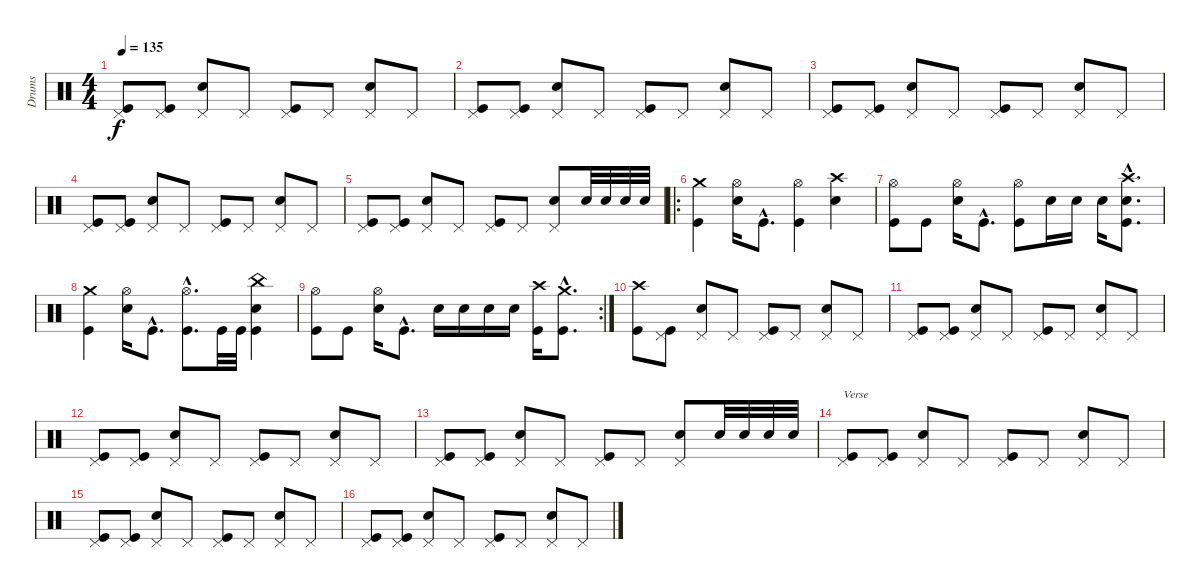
\track ("Drums" "Drums") {instrument percussion}
\staff {score}
\articulation defaults
\ts (4 4)
\tempo 135
\clef neutral
\ks c
("Pedal Hi-Hat (hit)" "Kick (hit)").8{dy f} ("Pedal Hi-Hat (hit)" "Kick (hit)").8 ("Pedal Hi-Hat (hit)" "Snare (hit) 2").8 "Pedal Hi-Hat (hit)".8 ("Pedal Hi-Hat (hit)" "Kick (hit)").8 "Pedal Hi-Hat (hit)".8 ("Pedal Hi-Hat (hit)" "Snare (hit) 2").8 "Pedal Hi-Hat (hit)".8 |
("Pedal Hi-Hat (hit)" "Kick (hit)").8 ("Pedal Hi-Hat (hit)" "Kick (hit)").8 ("Pedal Hi-Hat (hit)" "Snare (hit) 2").8 "Pedal Hi-Hat (hit)".8 ("Pedal Hi-Hat (hit)" "Kick (hit)").8 "Pedal Hi-Hat (hit)".8 ("Pedal Hi-Hat (hit)" "Snare (hit) 2").8 "Pedal Hi-Hat (hit)".8 |
("Pedal Hi-Hat (hit)" "Kick (hit)").8 ("Pedal Hi-Hat (hit)" "Kick (hit)").8 ("Pedal Hi-Hat (hit)" "Snare (hit) 2").8 "Pedal Hi-Hat (hit)".8 ("Pedal Hi-Hat (hit)" "Kick (hit)").8 "Pedal Hi-Hat (hit)".8 ("Pedal Hi-Hat (hit)" "Snare (hit) 2").8 "Pedal Hi-Hat (hit)".8 |
("Pedal Hi-Hat (hit)" "Kick (hit)").8 ("Pedal Hi-Hat (hit)" "Kick (hit)").8 ("Pedal Hi-Hat (hit)" "Snare (hit) 2").8 "Pedal Hi-Hat (hit)".8 ("Pedal Hi-Hat (hit)" "Kick (hit)").8 "Pedal Hi-Hat (hit)".8 ("Pedal Hi-Hat (hit)" "Snare (hit) 2").8 "Pedal Hi-Hat (hit)".8 |
("Pedal Hi-Hat (hit)" "Kick (hit)").8 ("Pedal Hi-Hat (hit)" "Kick (hit)").8 ("Pedal Hi-Hat (hit)" "Snare (hit) 2").8 "Pedal Hi-Hat (hit)".8 ("Pedal Hi-Hat (hit)" "Kick (hit)").8 "Pedal Hi-Hat (hit)".8 ("Pedal Hi-Hat (hit)" "Snare (hit) 2").8 "Snare (hit) 2".32 "Snare (hit) 2".32 "Snare (hit) 2".32 "Snare (hit) 2".32 |
\ro
("Crash medium (hit)" "Kick (hit)").4 ("Hi-Hat (open)" "Snare (hit) 2").16 "Kick (hit)"{hac}.8{d} ("Hi-Hat (open)" "Kick (hit)").4 ("Crash high (hit)" "Snare (hit) 2").4 |
("Hi-Hat (open)" "Kick (hit)").8 "Kick (hit)".8 ("Hi-Hat (open)" "Snare (hit) 2").16 "Kick (hit)"{hac}.8{d} ("Hi-Hat (open)" "Kick (hit)").8 "Snare (hit) 2".16 "Snare (hit) 2".16 "Snare (hit) 2".16 ("Crash high (hit)"{hac} "Snare (hit) 2"{hac} "Kick (hit)"{hac}).8{d} |
("Crash medium (hit)" "Kick (hit)").4 ("Hi-Hat (open)" "Snare (hit) 2").16 "Kick (hit)"{hac}.8{d} ("Hi-Hat (open)"{hac} "Kick (hit)"{hac}).8{d} "Kick (hit)".32 "Kick (hit)".32 ("China (hit)" "Snare (hit) 2" "Kick (hit)").4 |
\rc 2
("Hi-Hat (open)" "Kick (hit)").8 "Kick (hit)".8 ("Hi-Hat (open)" "Snare (hit) 2").16 "Kick (hit)"{hac}.8{d} "Snare (hit) 2".16 "Snare (hit) 2".16 "Snare (hit) 2".16 "Snare (hit) 2".16 ("Crash high (hit)" "Kick (hit)").16 ("Crash medium (hit)"{hac} "Kick (hit)"{hac}).8{d} |
("Crash high (hit)" "Kick (hit)").8 ("Pedal Hi-Hat (hit)" "Kick (hit)").8 ("Pedal Hi-Hat (hit)" "Snare (hit) 2").8 "Pedal Hi-Hat (hit)".8 ("Pedal Hi-Hat (hit)" "Kick (hit)").8 "Pedal Hi-Hat (hit)".8 ("Pedal Hi-Hat (hit)" "Snare (hit) 2").8 "Pedal Hi-Hat (hit)".8 |
("Pedal Hi-Hat (hit)" "Kick (hit)").8 ("Pedal Hi-Hat (hit)" "Kick (hit)").8 ("Pedal Hi-Hat (hit)" "Snare (hit) 2").8 "Pedal Hi-Hat (hit)".8 ("Pedal Hi-Hat (hit)" "Kick (hit)").8 "Pedal Hi-Hat (hit)".8 ("Pedal Hi-Hat (hit)" "Snare (hit) 2").8 "Pedal Hi-Hat (hit)".8 |
("Pedal Hi-Hat (hit)" "Kick (hit)").8 ("Pedal Hi-Hat (hit)" "Kick (hit)").8 ("Pedal Hi-Hat (hit)" "Snare (hit) 2").8 "Pedal Hi-Hat (hit)".8 ("Pedal Hi-Hat (hit)" "Kick (hit)").8 "Pedal Hi-Hat (hit)".8 ("Pedal Hi-Hat (hit)" "Snare (hit) 2").8 "Pedal Hi-Hat (hit)".8 |
("Pedal Hi-Hat (hit)" "Kick (hit)").8 ("Pedal Hi-Hat (hit)" "Kick (hit)").8 ("Pedal Hi-Hat (hit)" "Snare (hit) 2").8 "Pedal Hi-Hat (hit)".8 ("Pedal Hi-Hat (hit)" "Kick (hit)").8 "Pedal Hi-Hat (hit)".8 ("Pedal Hi-Hat (hit)" "Snare (hit) 2").8 "Snare (hit) 2".32 "Snare (hit) 2".32 "Snare (hit) 2".32 "Snare (hit) 2".32 |
("Pedal Hi-Hat (hit)" "Kick (hit)").8{txt "Verse"} ("Pedal Hi-Hat (hit)" "Kick (hit)").8 ("Pedal Hi-Hat (hit)" "Snare (hit) 2").8 "Pedal Hi-Hat (hit)".8 ("Pedal Hi-Hat (hit)" "Kick (hit)").8 "Pedal Hi-Hat (hit)".8 ("Pedal Hi-Hat (hit)" "Snare (hit) 2").8 "Pedal Hi-Hat (hit)".8 |
("Pedal Hi-Hat (hit)" "Kick (hit)").8 ("Pedal Hi-Hat (hit)" "Kick (hit)").8 ("Pedal Hi-Hat (hit)" "Snare (hit) 2").8 "Pedal Hi-Hat (hit)".8 ("Pedal Hi-Hat (hit)" "Kick (hit)").8 "Pedal Hi-Hat (hit)".8 ("Pedal Hi-Hat (hit)" "Snare (hit) 2").8 "Pedal Hi-Hat (hit)".8 |
("Pedal Hi-Hat (hit)" "Kick (hit)").8 ("Pedal Hi-Hat (hit)" "Kick (hit)").8 ("Pedal Hi-Hat (hit)" "Snare (hit) 2").8 "Pedal Hi-Hat (hit)".8 ("Pedal Hi-Hat (hit)" "Kick (hit)").8 "Pedal Hi-Hat (hit)".8 ("Pedal Hi-Hat (hit)" "Snare (hit) 2").8 "Pedal Hi-Hat (hit)".8
